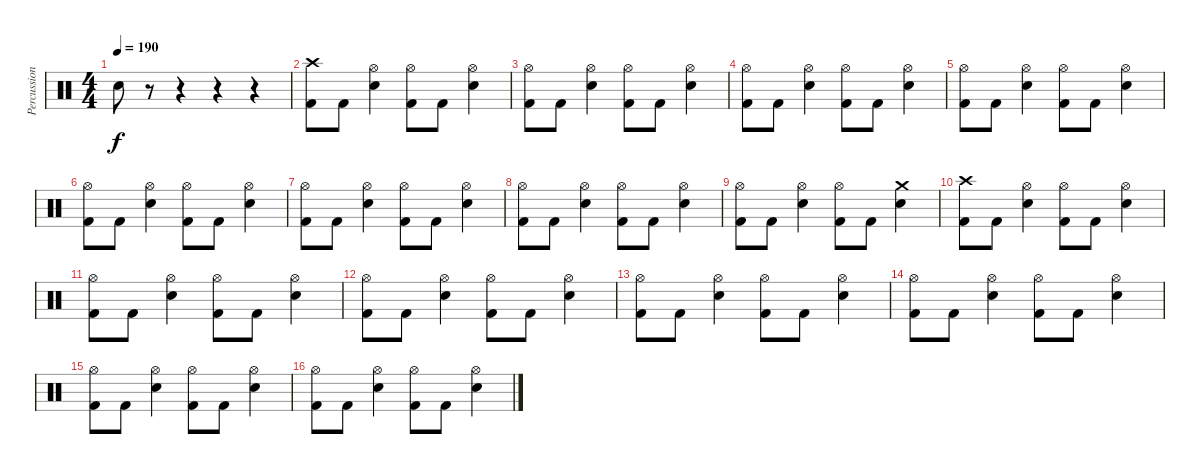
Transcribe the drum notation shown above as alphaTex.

\track ("Percussion" "Percussion") {instrument percussion}
\staff {score}
\articulation defaults
\ts (4 4)
\tempo 190
\clef neutral
\ks c "Electric Snare (hit)".8{dy f}
r.8 r.4 r.4 r.4 |
("Crash high (hit)" "Kick (hit) 2").8 "Kick (hit) 2".8 ("Hi-Hat (open)" "Electric Snare (hit)").4 ("Hi-Hat (open)" "Kick (hit) 2").8 "Kick (hit) 2".8 ("Hi-Hat (open)" "Electric Snare (hit)").4 |
("Hi-Hat (open)" "Kick (hit) 2").8 "Kick (hit) 2".8 ("Hi-Hat (open)" "Electric Snare (hit)").4 ("Hi-Hat (open)" "Kick (hit) 2").8 "Kick (hit) 2".8 ("Hi-Hat (open)" "Electric Snare (hit)").4 |
("Hi-Hat (open)" "Kick (hit) 2").8 "Kick (hit) 2".8 ("Hi-Hat (open)" "Electric Snare (hit)").4 ("Hi-Hat (open)" "Kick (hit) 2").8 "Kick (hit) 2".8 ("Hi-Hat (open)" "Electric Snare (hit)").4 |
("Hi-Hat (open)" "Kick (hit) 2").8 "Kick (hit) 2".8 ("Hi-Hat (open)" "Electric Snare (hit)").4 ("Hi-Hat (open)" "Kick (hit) 2").8 "Kick (hit) 2".8 ("Hi-Hat (open)" "Electric Snare (hit)").4 |
("Hi-Hat (open)" "Kick (hit) 2").8 "Kick (hit) 2".8 ("Hi-Hat (open)" "Electric Snare (hit)").4 ("Hi-Hat (open)" "Kick (hit) 2").8 "Kick (hit) 2".8 ("Hi-Hat (open)" "Electric Snare (hit)").4 |
("Hi-Hat (open)" "Kick (hit) 2").8 "Kick (hit) 2".8 ("Hi-Hat (open)" "Electric Snare (hit)").4 ("Hi-Hat (open)" "Kick (hit) 2").8 "Kick (hit) 2".8 ("Hi-Hat (open)" "Electric Snare (hit)").4 |
("Hi-Hat (open)" "Kick (hit) 2").8 "Kick (hit) 2".8 ("Hi-Hat (open)" "Electric Snare (hit)").4 ("Hi-Hat (open)" "Kick (hit) 2").8 "Kick (hit) 2".8 ("Hi-Hat (open)" "Electric Snare (hit)").4 |
("Hi-Hat (open)" "Kick (hit) 2").8 "Kick (hit) 2".8 ("Hi-Hat (open)" "Electric Snare (hit)").4 ("Hi-Hat (open)" "Kick (hit) 2").8 "Kick (hit) 2".8 ("Crash medium (hit)" "Electric Snare (hit)").4 |
("Crash high (hit)" "Kick (hit) 2").8 "Kick (hit) 2".8 ("Hi-Hat (open)" "Electric Snare (hit)").4 ("Hi-Hat (open)" "Kick (hit) 2").8 "Kick (hit) 2".8 ("Hi-Hat (open)" "Electric Snare (hit)").4 |
("Hi-Hat (open)" "Kick (hit) 2").8 "Kick (hit) 2".8 ("Hi-Hat (open)" "Electric Snare (hit)").4 ("Hi-Hat (open)" "Kick (hit) 2").8 "Kick (hit) 2".8 ("Hi-Hat (open)" "Electric Snare (hit)").4 |
("Hi-Hat (open)" "Kick (hit) 2").8 "Kick (hit) 2".8 ("Hi-Hat (open)" "Electric Snare (hit)").4 ("Hi-Hat (open)" "Kick (hit) 2").8 "Kick (hit) 2".8 ("Hi-Hat (open)" "Electric Snare (hit)").4 |
("Hi-Hat (open)" "Kick (hit) 2").8 "Kick (hit) 2".8 ("Hi-Hat (open)" "Electric Snare (hit)").4 ("Hi-Hat (open)" "Kick (hit) 2").8 "Kick (hit) 2".8 ("Hi-Hat (open)" "Electric Snare (hit)").4 |
("Hi-Hat (open)" "Kick (hit) 2").8 "Kick (hit) 2".8 ("Hi-Hat (open)" "Electric Snare (hit)").4 ("Hi-Hat (open)" "Kick (hit) 2").8 "Kick (hit) 2".8 ("Hi-Hat (open)" "Electric Snare (hit)").4 |
("Hi-Hat (open)" "Kick (hit) 2").8 "Kick (hit) 2".8 ("Hi-Hat (open)" "Electric Snare (hit)").4 ("Hi-Hat (open)" "Kick (hit) 2").8 "Kick (hit) 2".8 ("Hi-Hat (open)" "Electric Snare (hit)").4 |
("Hi-Hat (open)" "Kick (hit) 2").8 "Kick (hit) 2".8 ("Hi-Hat (open)" "Electric Snare (hit)").4 ("Hi-Hat (open)" "Kick (hit) 2").8 "Kick (hit) 2".8 ("Hi-Hat (open)" "Electric Snare (hit)").4
